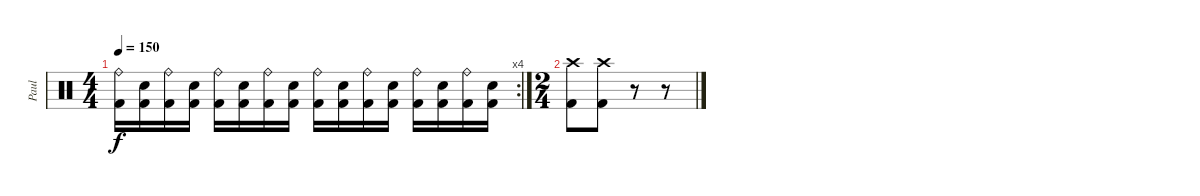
\track ("Paul" "Paul") {instrument percussion}
\staff {score}
\articulation defaults
\rc 4
\ts (4 4)
\tempo 150
\clef neutral
\ks c
("Ride (bell)" "Kick (hit) 2").16{dy f} ("Electric Snare (hit)" "Kick (hit) 2").16 ("Ride (bell)" "Kick (hit) 2").16 ("Electric Snare (hit)" "Kick (hit) 2").16 ("Ride (bell)" "Kick (hit) 2").16 ("Electric Snare (hit)" "Kick (hit) 2").16 ("Ride (bell)" "Kick (hit) 2").16 ("Electric Snare (hit)" "Kick (hit) 2").16 ("Ride (bell)" "Kick (hit) 2").16 ("Electric Snare (hit)" "Kick (hit) 2").16 ("Ride (bell)" "Kick (hit) 2").16 ("Electric Snare (hit)" "Kick (hit) 2").16 ("Ride (bell)" "Kick (hit) 2").16 ("Electric Snare (hit)" "Kick (hit) 2").16 ("Ride (bell)" "Kick (hit) 2").16 ("Electric Snare (hit)" "Kick (hit) 2").16 |
\ts (2 4)
("Crash high (hit)" "Kick (hit) 2").8 ("Crash high (hit)" "Kick (hit) 2").8 r.8 r.8
